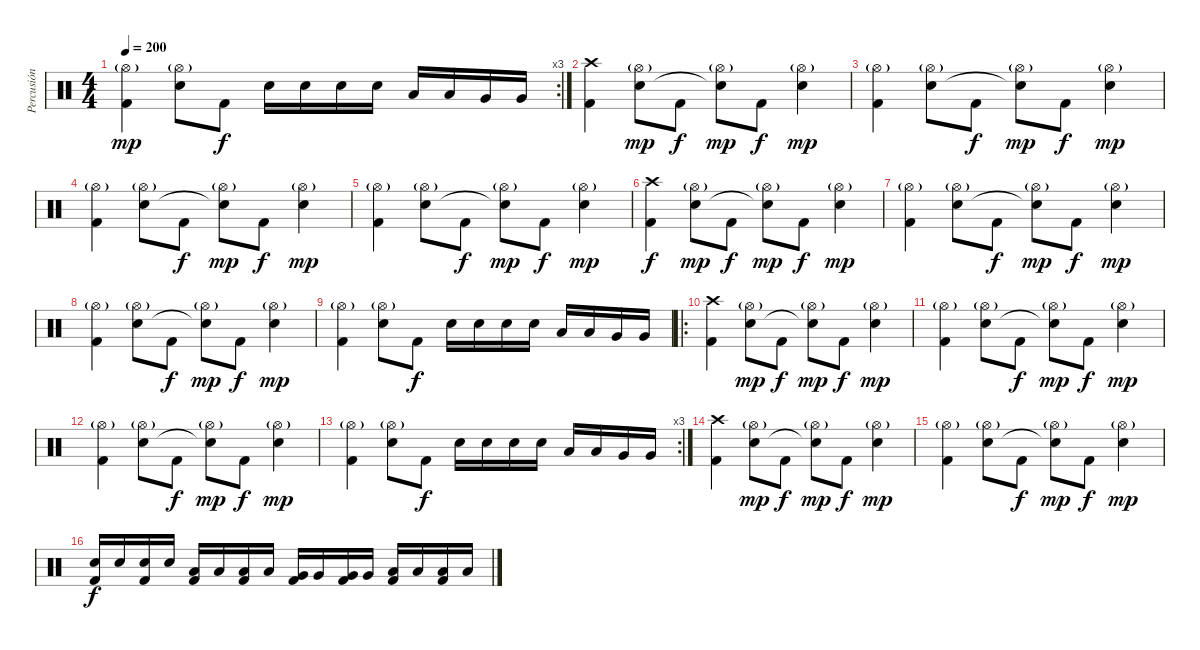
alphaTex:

\track ("Percusión" "Percusión") {instrument percussion}
\staff {score}
\articulation defaults
\rc 3
\ts (4 4)
\tempo 200
\clef neutral
\ks c
("Hi-Hat (open)"{g} "Kick (hit) 2").4{dy mp} ("Hi-Hat (open)"{g} "Snare (hit) 2").8 "Kick (hit) 2".8{dy f} "Snare (hit) 2".16 "Snare (hit) 2".16 "Snare (hit) 2".16 "Snare (hit) 2".16 "Low Tom (hit)".16 "Low Tom (hit)".16 "Very Low Tom (hit)".16 "Very Low Tom (hit)".16 |
("Crash high (hit)" "Kick (hit) 2").4 ("Hi-Hat (open)"{g} "Snare (hit) 2").8{dy mp} "Kick (hit) 2".8{dy f} ("Hi-Hat (open)"{g} "Snare (hit)"{t}).8{dy mp} "Kick (hit) 2".8{dy f} ("Hi-Hat (open)"{g} "Snare (hit) 2").4{dy mp} |
("Hi-Hat (open)"{g} "Kick (hit) 2").4 ("Hi-Hat (open)"{g} "Snare (hit) 2").8 "Kick (hit) 2".8{dy f} ("Hi-Hat (open)"{g} "Snare (hit)"{t}).8{dy mp} "Kick (hit) 2".8{dy f} ("Hi-Hat (open)"{g} "Snare (hit) 2").4{dy mp} |
("Hi-Hat (open)"{g} "Kick (hit) 2").4 ("Hi-Hat (open)"{g} "Snare (hit) 2").8 "Kick (hit) 2".8{dy f} ("Hi-Hat (open)"{g} "Snare (hit)"{t}).8{dy mp} "Kick (hit) 2".8{dy f} ("Hi-Hat (open)"{g} "Snare (hit) 2").4{dy mp} |
("Hi-Hat (open)"{g} "Kick (hit) 2").4 ("Hi-Hat (open)"{g} "Snare (hit) 2").8 "Kick (hit) 2".8{dy f} ("Hi-Hat (open)"{g} "Snare (hit)"{t}).8{dy mp} "Kick (hit) 2".8{dy f} ("Hi-Hat (open)"{g} "Snare (hit) 2").4{dy mp} |
("Crash high (hit)" "Kick (hit) 2").4{dy f} ("Hi-Hat (open)"{g} "Snare (hit) 2").8{dy mp} "Kick (hit) 2".8{dy f} ("Hi-Hat (open)"{g} "Snare (hit)"{t}).8{dy mp} "Kick (hit) 2".8{dy f} ("Hi-Hat (open)"{g} "Snare (hit) 2").4{dy mp} |
("Hi-Hat (open)"{g} "Kick (hit) 2").4 ("Hi-Hat (open)"{g} "Snare (hit) 2").8 "Kick (hit) 2".8{dy f} ("Hi-Hat (open)"{g} "Snare (hit)"{t}).8{dy mp} "Kick (hit) 2".8{dy f} ("Hi-Hat (open)"{g} "Snare (hit) 2").4{dy mp} |
("Hi-Hat (open)"{g} "Kick (hit) 2").4 ("Hi-Hat (open)"{g} "Snare (hit) 2").8 "Kick (hit) 2".8{dy f} ("Hi-Hat (open)"{g} "Snare (hit)"{t}).8{dy mp} "Kick (hit) 2".8{dy f} ("Hi-Hat (open)"{g} "Snare (hit) 2").4{dy mp} |
("Hi-Hat (open)"{g} "Kick (hit) 2").4 ("Hi-Hat (open)"{g} "Snare (hit) 2").8 "Kick (hit) 2".8{dy f} "Snare (hit) 2".16 "Snare (hit) 2".16 "Snare (hit) 2".16 "Snare (hit) 2".16 "Low Tom (hit)".16 "Low Tom (hit)".16 "Very Low Tom (hit)".16 "Very Low Tom (hit)".16 |
\ro
("Crash high (hit)" "Kick (hit) 2").4 ("Hi-Hat (open)"{g} "Snare (hit) 2").8{dy mp} "Kick (hit) 2".8{dy f} ("Hi-Hat (open)"{g} "Snare (hit)"{t}).8{dy mp} "Kick (hit) 2".8{dy f} ("Hi-Hat (open)"{g} "Snare (hit) 2").4{dy mp} |
("Hi-Hat (open)"{g} "Kick (hit) 2").4 ("Hi-Hat (open)"{g} "Snare (hit) 2").8 "Kick (hit) 2".8{dy f} ("Hi-Hat (open)"{g} "Snare (hit)"{t}).8{dy mp} "Kick (hit) 2".8{dy f} ("Hi-Hat (open)"{g} "Snare (hit) 2").4{dy mp} |
("Hi-Hat (open)"{g} "Kick (hit) 2").4 ("Hi-Hat (open)"{g} "Snare (hit) 2").8 "Kick (hit) 2".8{dy f} ("Hi-Hat (open)"{g} "Snare (hit)"{t}).8{dy mp} "Kick (hit) 2".8{dy f} ("Hi-Hat (open)"{g} "Snare (hit) 2").4{dy mp} |
\rc 3
("Hi-Hat (open)"{g} "Kick (hit) 2").4 ("Hi-Hat (open)"{g} "Snare (hit) 2").8 "Kick (hit) 2".8{dy f} "Snare (hit) 2".16 "Snare (hit) 2".16 "Snare (hit) 2".16 "Snare (hit) 2".16 "Low Tom (hit)".16 "Low Tom (hit)".16 "Very Low Tom (hit)".16 "Very Low Tom (hit)".16 |
("Crash high (hit)" "Kick (hit) 2").4 ("Hi-Hat (open)"{g} "Snare (hit) 2").8{dy mp} "Kick (hit) 2".8{dy f} ("Hi-Hat (open)"{g} "Snare (hit)"{t}).8{dy mp} "Kick (hit) 2".8{dy f} ("Hi-Hat (open)"{g} "Snare (hit) 2").4{dy mp} |
("Hi-Hat (open)"{g} "Kick (hit) 2").4 ("Hi-Hat (open)"{g} "Snare (hit) 2").8 "Kick (hit) 2".8{dy f} ("Hi-Hat (open)"{g} "Snare (hit)"{t}).8{dy mp} "Kick (hit) 2".8{dy f} ("Hi-Hat (open)"{g} "Snare (hit) 2").4{dy mp} |
("Kick (hit) 2" "Snare (hit) 2").16{dy f} "Snare (hit) 2".16 ("Kick (hit) 2" "Snare (hit) 2").16 "Snare (hit) 2".16 ("Kick (hit) 2" "Low Tom (hit)").16 "Low Tom (hit)".16 ("Kick (hit) 2" "Low Tom (hit)").16 "Low Tom (hit)".16 ("Kick (hit) 2" "Very Low Tom (hit)").16 "Very Low Tom (hit)".16 ("Kick (hit) 2" "Very Low Tom (hit)").16 "Very Low Tom (hit)".16 ("Kick (hit) 2" "Low Floor Tom (hit)").16 "Low Floor Tom (hit)".16 ("Kick (hit) 2" "Low Floor Tom (hit)").16 "Low Floor Tom (hit)".16
